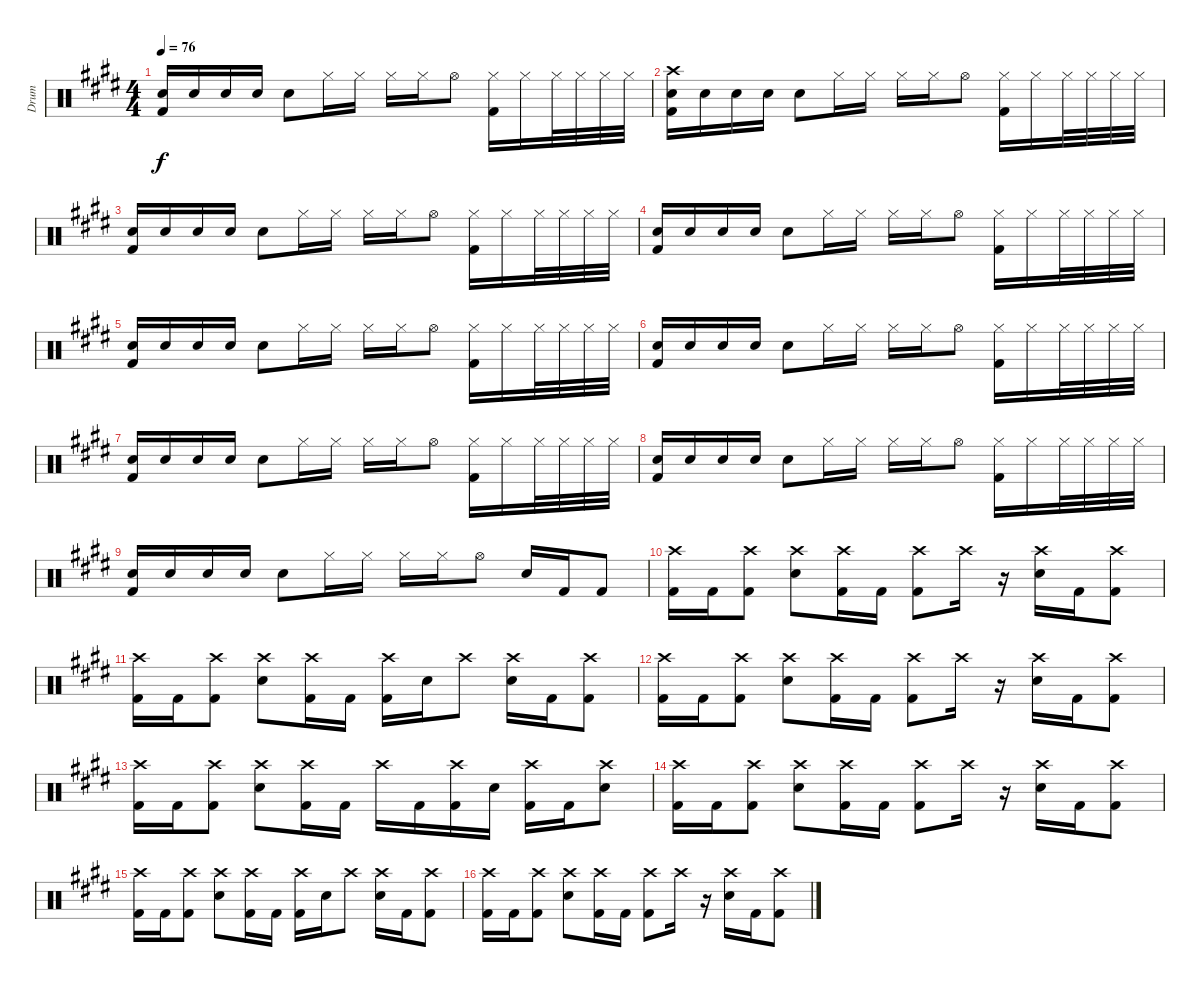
\track ("Drum" "Drum") {instrument percussion}
\staff {score}
\articulation defaults
\ts (4 4)
\tempo 76
\clef neutral
\ks e
("Electric Snare (hit)" "Kick (hit) 2").16{dy f} "Electric Snare (hit)".16 "Electric Snare (hit)".16 "Electric Snare (hit)".16 "Electric Snare (hit)".8 "Hi-Hat (closed)".16 "Hi-Hat (closed)".16 "Hi-Hat (closed)".16 "Hi-Hat (closed)".16 "Hi-Hat (open)".8 ("Hi-Hat (closed)" "Kick (hit) 2").16 "Hi-Hat (closed)".16 "Hi-Hat (closed)".32 "Hi-Hat (closed)".32 "Hi-Hat (closed)".32 "Hi-Hat (closed)".32 |
("Crash high (hit)" "Electric Snare (hit)" "Kick (hit) 2").16 "Electric Snare (hit)".16 "Electric Snare (hit)".16 "Electric Snare (hit)".16 "Electric Snare (hit)".8 "Hi-Hat (closed)".16 "Hi-Hat (closed)".16 "Hi-Hat (closed)".16 "Hi-Hat (closed)".16 "Hi-Hat (open)".8 ("Hi-Hat (closed)" "Kick (hit) 2").16 "Hi-Hat (closed)".16 "Hi-Hat (closed)".32 "Hi-Hat (closed)".32 "Hi-Hat (closed)".32 "Hi-Hat (closed)".32 |
("Electric Snare (hit)" "Kick (hit) 2").16 "Electric Snare (hit)".16 "Electric Snare (hit)".16 "Electric Snare (hit)".16 "Electric Snare (hit)".8 "Hi-Hat (closed)".16 "Hi-Hat (closed)".16 "Hi-Hat (closed)".16 "Hi-Hat (closed)".16 "Hi-Hat (open)".8 ("Hi-Hat (closed)" "Kick (hit) 2").16 "Hi-Hat (closed)".16 "Hi-Hat (closed)".32 "Hi-Hat (closed)".32 "Hi-Hat (closed)".32 "Hi-Hat (closed)".32 |
("Electric Snare (hit)" "Kick (hit) 2").16 "Electric Snare (hit)".16 "Electric Snare (hit)".16 "Electric Snare (hit)".16 "Electric Snare (hit)".8 "Hi-Hat (closed)".16 "Hi-Hat (closed)".16 "Hi-Hat (closed)".16 "Hi-Hat (closed)".16 "Hi-Hat (open)".8 ("Hi-Hat (closed)" "Kick (hit) 2").16 "Hi-Hat (closed)".16 "Hi-Hat (closed)".32 "Hi-Hat (closed)".32 "Hi-Hat (closed)".32 "Hi-Hat (closed)".32 |
("Electric Snare (hit)" "Kick (hit) 2").16 "Electric Snare (hit)".16 "Electric Snare (hit)".16 "Electric Snare (hit)".16 "Electric Snare (hit)".8 "Hi-Hat (closed)".16 "Hi-Hat (closed)".16 "Hi-Hat (closed)".16 "Hi-Hat (closed)".16 "Hi-Hat (open)".8 ("Hi-Hat (closed)" "Kick (hit) 2").16 "Hi-Hat (closed)".16 "Hi-Hat (closed)".32 "Hi-Hat (closed)".32 "Hi-Hat (closed)".32 "Hi-Hat (closed)".32 |
("Electric Snare (hit)" "Kick (hit) 2").16 "Electric Snare (hit)".16 "Electric Snare (hit)".16 "Electric Snare (hit)".16 "Electric Snare (hit)".8 "Hi-Hat (closed)".16 "Hi-Hat (closed)".16 "Hi-Hat (closed)".16 "Hi-Hat (closed)".16 "Hi-Hat (open)".8 ("Hi-Hat (closed)" "Kick (hit) 2").16 "Hi-Hat (closed)".16 "Hi-Hat (closed)".32 "Hi-Hat (closed)".32 "Hi-Hat (closed)".32 "Hi-Hat (closed)".32 |
("Electric Snare (hit)" "Kick (hit) 2").16 "Electric Snare (hit)".16 "Electric Snare (hit)".16 "Electric Snare (hit)".16 "Electric Snare (hit)".8 "Hi-Hat (closed)".16 "Hi-Hat (closed)".16 "Hi-Hat (closed)".16 "Hi-Hat (closed)".16 "Hi-Hat (open)".8 ("Hi-Hat (closed)" "Kick (hit) 2").16 "Hi-Hat (closed)".16 "Hi-Hat (closed)".32 "Hi-Hat (closed)".32 "Hi-Hat (closed)".32 "Hi-Hat (closed)".32 |
("Electric Snare (hit)" "Kick (hit) 2").16 "Electric Snare (hit)".16 "Electric Snare (hit)".16 "Electric Snare (hit)".16 "Electric Snare (hit)".8 "Hi-Hat (closed)".16 "Hi-Hat (closed)".16 "Hi-Hat (closed)".16 "Hi-Hat (closed)".16 "Hi-Hat (open)".8 ("Hi-Hat (closed)" "Kick (hit) 2").16 "Hi-Hat (closed)".16 "Hi-Hat (closed)".32 "Hi-Hat (closed)".32 "Hi-Hat (closed)".32 "Hi-Hat (closed)".32 |
("Electric Snare (hit)" "Kick (hit) 2").16 "Electric Snare (hit)".16 "Electric Snare (hit)".16 "Electric Snare (hit)".16 "Electric Snare (hit)".8 "Hi-Hat (closed)".16 "Hi-Hat (closed)".16 "Hi-Hat (closed)".16 "Hi-Hat (closed)".16 "Hi-Hat (open)".8 "Electric Snare (hit)".16 "Kick (hit) 2".16 "Kick (hit) 2".8 |
("Crash high (hit)" "Kick (hit) 2").16{volume 11} "Kick (hit) 2".16 ("Crash high (hit)" "Kick (hit) 2").8 ("Crash high (hit)" "Electric Snare (hit)").8 ("Crash high (hit)" "Kick (hit) 2").16 "Kick (hit) 2".16 ("Crash high (hit)" "Kick (hit) 2").8 "Crash high (hit)".16 r.16 ("Crash high (hit)" "Electric Snare (hit)").16 "Kick (hit) 2".16 ("Crash high (hit)" "Kick (hit) 2").8 |
("Crash high (hit)" "Kick (hit) 2").16 "Kick (hit) 2".16 ("Crash high (hit)" "Kick (hit) 2").8 ("Crash high (hit)" "Electric Snare (hit)").8 ("Crash high (hit)" "Kick (hit) 2").16 "Kick (hit) 2".16 ("Crash high (hit)" "Kick (hit) 2").16 "Electric Snare (hit)".16 "Crash high (hit)".8 ("Crash high (hit)" "Electric Snare (hit)").16 "Kick (hit) 2".16 ("Crash high (hit)" "Kick (hit) 2").8 |
("Crash high (hit)" "Kick (hit) 2").16{volume 11} "Kick (hit) 2".16 ("Crash high (hit)" "Kick (hit) 2").8 ("Crash high (hit)" "Electric Snare (hit)").8 ("Crash high (hit)" "Kick (hit) 2").16 "Kick (hit) 2".16 ("Crash high (hit)" "Kick (hit) 2").8 "Crash high (hit)".16 r.16 ("Crash high (hit)" "Electric Snare (hit)").16 "Kick (hit) 2".16 ("Crash high (hit)" "Kick (hit) 2").8 |
("Crash high (hit)" "Kick (hit) 2").16{volume 11} "Kick (hit) 2".16 ("Crash high (hit)" "Kick (hit) 2").8 ("Crash high (hit)" "Electric Snare (hit)").8 ("Crash high (hit)" "Kick (hit) 2").16 "Kick (hit) 2".16 "Crash high (hit)".16 "Kick (hit) 2".16 ("Crash high (hit)" "Kick (hit) 2").16 "Electric Snare (hit)".16 ("Crash high (hit)" "Kick (hit) 2").16 "Kick (hit) 2".16 ("Crash high (hit)" "Electric Snare (hit)").8 |
("Crash high (hit)" "Kick (hit) 2").16{volume 11} "Kick (hit) 2".16 ("Crash high (hit)" "Kick (hit) 2").8 ("Crash high (hit)" "Electric Snare (hit)").8 ("Crash high (hit)" "Kick (hit) 2").16 "Kick (hit) 2".16 ("Crash high (hit)" "Kick (hit) 2").8 "Crash high (hit)".16 r.16 ("Crash high (hit)" "Electric Snare (hit)").16 "Kick (hit) 2".16 ("Crash high (hit)" "Kick (hit) 2").8 |
("Crash high (hit)" "Kick (hit) 2").16 "Kick (hit) 2".16 ("Crash high (hit)" "Kick (hit) 2").8 ("Crash high (hit)" "Electric Snare (hit)").8 ("Crash high (hit)" "Kick (hit) 2").16 "Kick (hit) 2".16 ("Crash high (hit)" "Kick (hit) 2").16 "Electric Snare (hit)".16 "Crash high (hit)".8 ("Crash high (hit)" "Electric Snare (hit)").16 "Kick (hit) 2".16 ("Crash high (hit)" "Kick (hit) 2").8 |
("Crash high (hit)" "Kick (hit) 2").16{volume 11} "Kick (hit) 2".16 ("Crash high (hit)" "Kick (hit) 2").8 ("Crash high (hit)" "Electric Snare (hit)").8 ("Crash high (hit)" "Kick (hit) 2").16 "Kick (hit) 2".16 ("Crash high (hit)" "Kick (hit) 2").8 "Crash high (hit)".16 r.16 ("Crash high (hit)" "Electric Snare (hit)").16 "Kick (hit) 2".16 ("Crash high (hit)" "Kick (hit) 2").8
